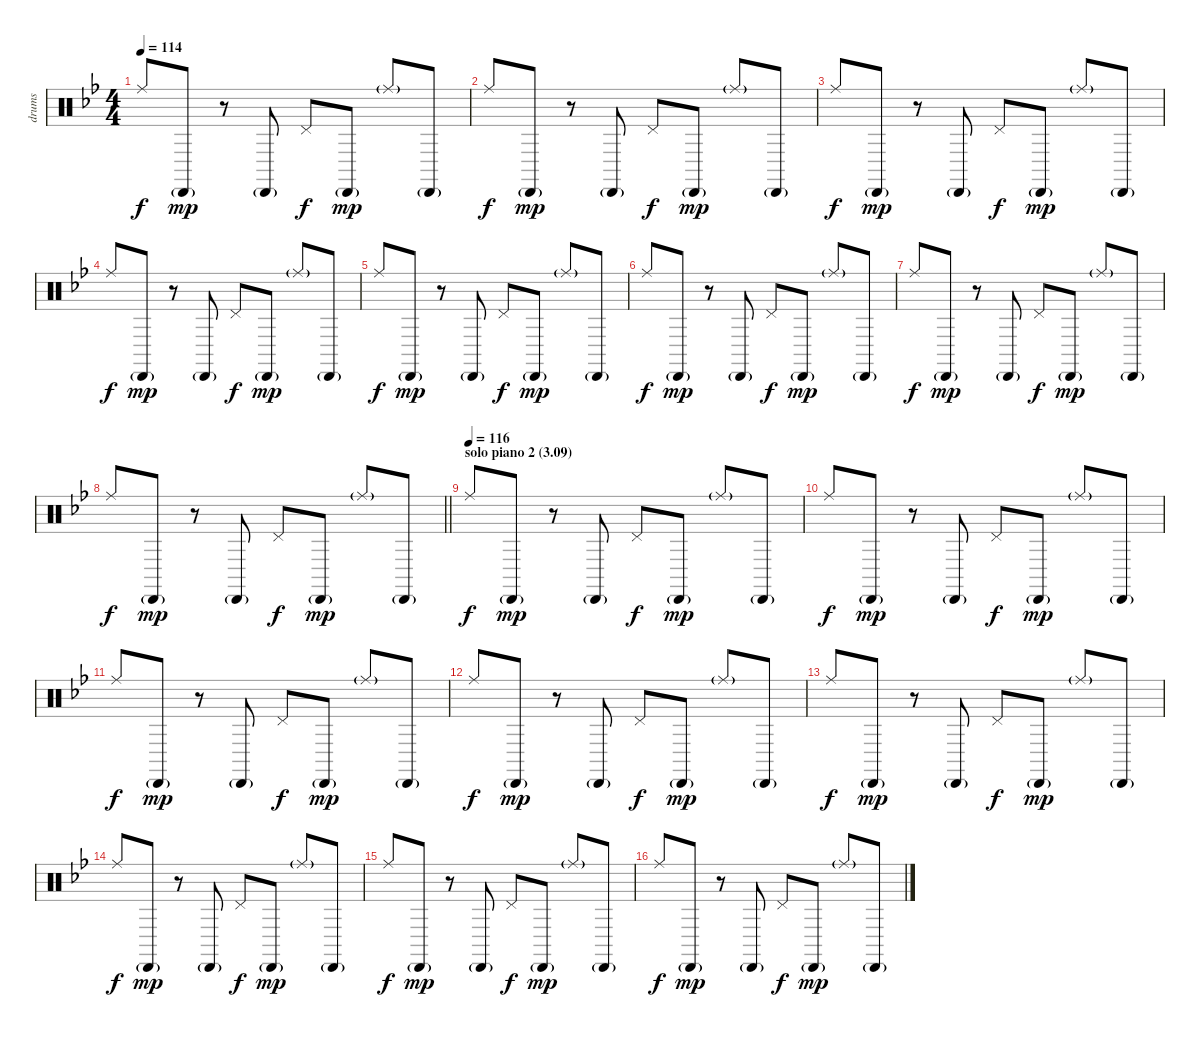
\track ("drums" "drums") {instrument percussion}
\staff {score}
\articulation defaults
\ts (4 4)
\tempo 114
\clef neutral
\ks bb "Ride (middle)".8{dy f} "Cabasa (hit)"{g}.8{dy mp}
r.8 "Cabasa (hit)"{g}.8 "Pedal Hi-Hat (hit)".8{dy f} "Cabasa (hit)"{g}.8{dy mp} "Ride (middle)"{g}.8 "Cabasa (hit)"{g}.8 |
"Ride (middle)".8{dy f} "Cabasa (hit)"{g}.8{dy mp} r.8 "Cabasa (hit)"{g}.8 "Pedal Hi-Hat (hit)".8{dy f} "Cabasa (hit)"{g}.8{dy mp} "Ride (middle)"{g}.8 "Cabasa (hit)"{g}.8 |
"Ride (middle)".8{dy f} "Cabasa (hit)"{g}.8{dy mp} r.8 "Cabasa (hit)"{g}.8 "Pedal Hi-Hat (hit)".8{dy f} "Cabasa (hit)"{g}.8{dy mp} "Ride (middle)"{g}.8 "Cabasa (hit)"{g}.8 |
"Ride (middle)".8{dy f} "Cabasa (hit)"{g}.8{dy mp} r.8 "Cabasa (hit)"{g}.8 "Pedal Hi-Hat (hit)".8{dy f} "Cabasa (hit)"{g}.8{dy mp} "Ride (middle)"{g}.8 "Cabasa (hit)"{g}.8 |
"Ride (middle)".8{dy f} "Cabasa (hit)"{g}.8{dy mp} r.8 "Cabasa (hit)"{g}.8 "Pedal Hi-Hat (hit)".8{dy f} "Cabasa (hit)"{g}.8{dy mp} "Ride (middle)"{g}.8 "Cabasa (hit)"{g}.8 |
"Ride (middle)".8{dy f} "Cabasa (hit)"{g}.8{dy mp} r.8 "Cabasa (hit)"{g}.8 "Pedal Hi-Hat (hit)".8{dy f} "Cabasa (hit)"{g}.8{dy mp} "Ride (middle)"{g}.8 "Cabasa (hit)"{g}.8 |
"Ride (middle)".8{dy f} "Cabasa (hit)"{g}.8{dy mp} r.8 "Cabasa (hit)"{g}.8 "Pedal Hi-Hat (hit)".8{dy f} "Cabasa (hit)"{g}.8{dy mp} "Ride (middle)"{g}.8 "Cabasa (hit)"{g}.8 |
\barLineRight lightlight "Ride (middle)".8{dy f} "Cabasa (hit)"{g}.8{dy mp}
r.8 "Cabasa (hit)"{g}.8 "Pedal Hi-Hat (hit)".8{dy f} "Cabasa (hit)"{g}.8{dy mp} "Ride (middle)"{g}.8 "Cabasa (hit)"{g}.8 |
\section ("" "solo piano 2 (3.09)")
\tempo (116)
"Ride (middle)".8{dy f} "Cabasa (hit)"{g}.8{dy mp} r.8 "Cabasa (hit)"{g}.8 "Pedal Hi-Hat (hit)".8{dy f} "Cabasa (hit)"{g}.8{dy mp} "Ride (middle)"{g}.8 "Cabasa (hit)"{g}.8 |
"Ride (middle)".8{dy f} "Cabasa (hit)"{g}.8{dy mp} r.8 "Cabasa (hit)"{g}.8 "Pedal Hi-Hat (hit)".8{dy f} "Cabasa (hit)"{g}.8{dy mp} "Ride (middle)"{g}.8 "Cabasa (hit)"{g}.8 |
"Ride (middle)".8{dy f} "Cabasa (hit)"{g}.8{dy mp} r.8 "Cabasa (hit)"{g}.8 "Pedal Hi-Hat (hit)".8{dy f} "Cabasa (hit)"{g}.8{dy mp} "Ride (middle)"{g}.8 "Cabasa (hit)"{g}.8 |
"Ride (middle)".8{dy f} "Cabasa (hit)"{g}.8{dy mp} r.8 "Cabasa (hit)"{g}.8 "Pedal Hi-Hat (hit)".8{dy f} "Cabasa (hit)"{g}.8{dy mp} "Ride (middle)"{g}.8 "Cabasa (hit)"{g}.8 |
"Ride (middle)".8{dy f} "Cabasa (hit)"{g}.8{dy mp} r.8 "Cabasa (hit)"{g}.8 "Pedal Hi-Hat (hit)".8{dy f} "Cabasa (hit)"{g}.8{dy mp} "Ride (middle)"{g}.8 "Cabasa (hit)"{g}.8 |
"Ride (middle)".8{dy f} "Cabasa (hit)"{g}.8{dy mp} r.8 "Cabasa (hit)"{g}.8 "Pedal Hi-Hat (hit)".8{dy f} "Cabasa (hit)"{g}.8{dy mp} "Ride (middle)"{g}.8 "Cabasa (hit)"{g}.8 |
"Ride (middle)".8{dy f} "Cabasa (hit)"{g}.8{dy mp} r.8 "Cabasa (hit)"{g}.8 "Pedal Hi-Hat (hit)".8{dy f} "Cabasa (hit)"{g}.8{dy mp} "Ride (middle)"{g}.8 "Cabasa (hit)"{g}.8 |
"Ride (middle)".8{dy f} "Cabasa (hit)"{g}.8{dy mp} r.8 "Cabasa (hit)"{g}.8 "Pedal Hi-Hat (hit)".8{dy f} "Cabasa (hit)"{g}.8{dy mp} "Ride (middle)"{g}.8 "Cabasa (hit)"{g}.8
